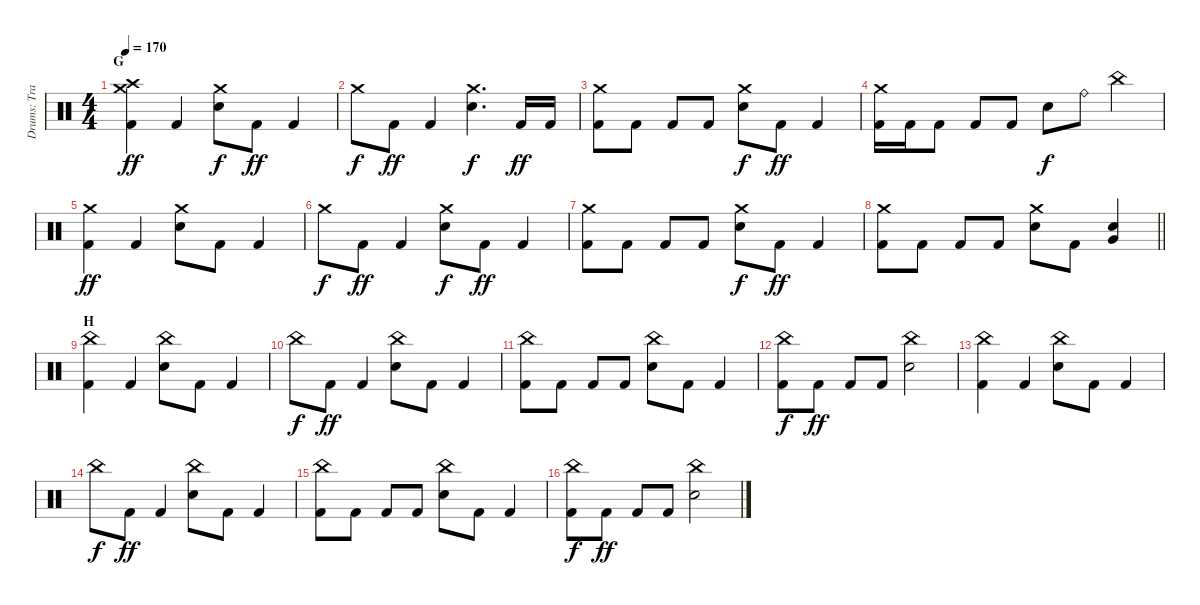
\track ("Drums: Trav Clarke" "Drums: Tra") {instrument percussion}
\staff {score}
\articulation defaults
\ts (4 4)
\section ("" "G")
\tempo 170
\clef neutral
\ks c
("Kick (hit) 2" "Crash high (hit)" "Crash medium (hit)").4{dy ff} "Kick (hit) 2".4 ("Snare (hit) 2" "Crash medium (hit)").8{dy f} "Kick (hit) 2".8{dy ff} "Kick (hit) 2".4 |
"Crash medium (hit)".8{dy f} "Kick (hit) 2".8{dy ff} "Kick (hit) 2".4 ("Snare (hit) 2" "Crash medium (hit)").4{d dy f} "Kick (hit) 2".16{dy ff} "Kick (hit) 2".16 |
("Kick (hit) 2" "Crash medium (hit)").8 "Kick (hit) 2".8 "Kick (hit) 2".8 "Kick (hit) 2".8 ("Snare (hit) 2" "Crash medium (hit)").8{dy f} "Kick (hit) 2".8{dy ff} "Kick (hit) 2".4 |
("Kick (hit) 2" "Crash medium (hit)").16 "Kick (hit) 2".16 "Kick (hit) 2".8 "Kick (hit) 2".8 "Kick (hit) 2".8 "Snare (hit) 2".8{dy f} "Ride (bell)".8 "China (hit)".4 |
("Kick (hit) 2" "Crash medium (hit)").4{dy ff} "Kick (hit) 2".4 ("Snare (hit) 2" "Crash medium (hit)").8 "Kick (hit) 2".8 "Kick (hit) 2".4 |
"Crash medium (hit)".8{dy f} "Kick (hit) 2".8{dy ff} "Kick (hit) 2".4 ("Snare (hit) 2" "Crash medium (hit)").8{dy f} "Kick (hit) 2".8{dy ff} "Kick (hit) 2".4 |
("Kick (hit) 2" "Crash medium (hit)").8 "Kick (hit) 2".8 "Kick (hit) 2".8 "Kick (hit) 2".8 ("Snare (hit) 2" "Crash medium (hit)").8{dy f} "Kick (hit) 2".8{dy ff} "Kick (hit) 2".4 |
\barLineRight lightlight
("Kick (hit) 2" "Crash medium (hit)").8 "Kick (hit) 2".8 "Kick (hit) 2".8 "Kick (hit) 2".8 ("Snare (hit) 2" "Crash medium (hit)").8 "Kick (hit) 2".8 ("Snare (hit) 2" "Very Low Tom (hit)").4 |
\section ("" "H")
("Kick (hit) 2" "China (hit)").4 "Kick (hit) 2".4 ("Snare (hit) 2" "China (hit)").8 "Kick (hit) 2".8 "Kick (hit) 2".4 |
"China (hit)".8{dy f} "Kick (hit) 2".8{dy ff} "Kick (hit) 2".4 ("Snare (hit) 2" "China (hit)").8 "Kick (hit) 2".8 "Kick (hit) 2".4 |
("Kick (hit) 2" "China (hit)").8 "Kick (hit) 2".8 "Kick (hit) 2".8 "Kick (hit) 2".8 ("Snare (hit) 2" "China (hit)").8 "Kick (hit) 2".8 "Kick (hit) 2".4 |
("Kick (hit) 2" "China (hit)").8{dy f} "Kick (hit) 2".8{dy ff} "Kick (hit) 2".8 "Kick (hit) 2".8 ("Snare (hit) 2" "China (hit)").2 |
("Kick (hit) 2" "China (hit)").4 "Kick (hit) 2".4 ("Snare (hit) 2" "China (hit)").8 "Kick (hit) 2".8 "Kick (hit) 2".4 |
"China (hit)".8{dy f} "Kick (hit) 2".8{dy ff} "Kick (hit) 2".4 ("Snare (hit) 2" "China (hit)").8 "Kick (hit) 2".8 "Kick (hit) 2".4 |
("Kick (hit) 2" "China (hit)").8 "Kick (hit) 2".8 "Kick (hit) 2".8 "Kick (hit) 2".8 ("Snare (hit) 2" "China (hit)").8 "Kick (hit) 2".8 "Kick (hit) 2".4 |
("Kick (hit) 2" "China (hit)").8{dy f} "Kick (hit) 2".8{dy ff} "Kick (hit) 2".8 "Kick (hit) 2".8 ("Snare (hit) 2" "China (hit)").2
